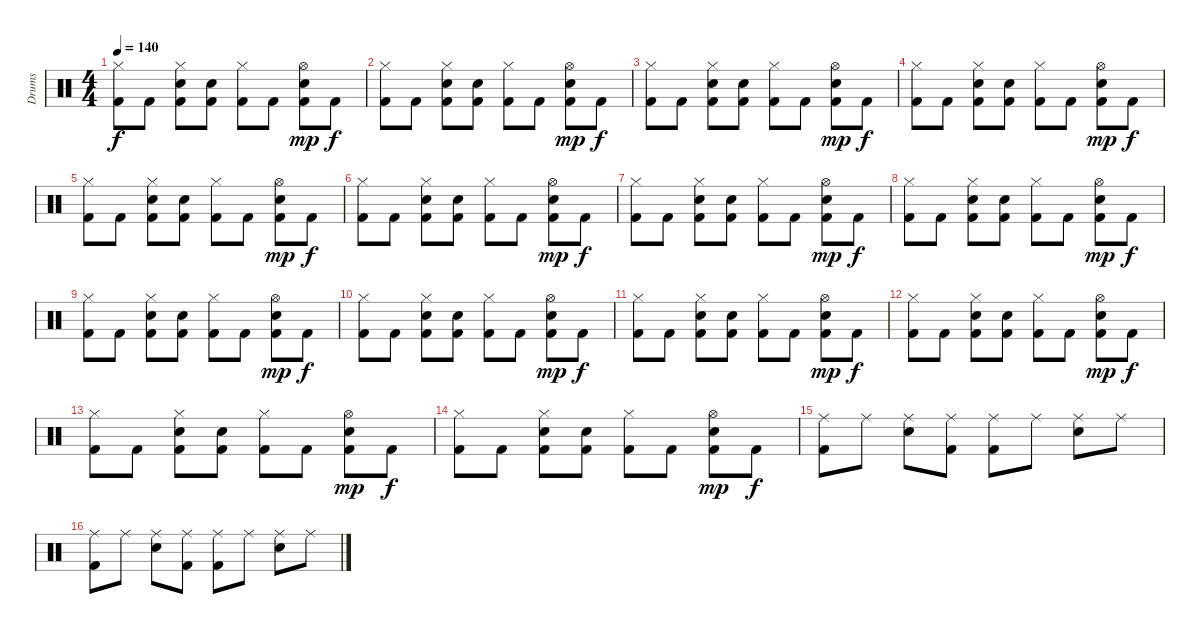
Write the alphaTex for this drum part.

\track ("Drums" "Drums") {instrument percussion}
\staff {score}
\articulation defaults
\ts (4 4)
\tempo 140
\clef neutral
\ks c
("Hi-Hat (closed)" "Kick (hit) 2").8{dy f} "Kick (hit) 2".8 ("Hi-Hat (closed)" "Electric Snare (hit)" "Kick (hit) 2").8 ("Electric Snare (hit)" "Kick (hit) 2").8 ("Hi-Hat (closed)" "Kick (hit) 2").8 "Kick (hit) 2".8 ("Hi-Hat (open)" "Electric Snare (hit)" "Kick (hit) 2").8{dy mp} "Kick (hit) 2".8{dy f} |
("Hi-Hat (closed)" "Kick (hit) 2").8 "Kick (hit) 2".8 ("Hi-Hat (closed)" "Electric Snare (hit)" "Kick (hit) 2").8 ("Electric Snare (hit)" "Kick (hit) 2").8 ("Hi-Hat (closed)" "Kick (hit) 2").8 "Kick (hit) 2".8 ("Hi-Hat (open)" "Electric Snare (hit)" "Kick (hit) 2").8{dy mp} "Kick (hit) 2".8{dy f} |
("Hi-Hat (closed)" "Kick (hit) 2").8 "Kick (hit) 2".8 ("Hi-Hat (closed)" "Electric Snare (hit)" "Kick (hit) 2").8 ("Electric Snare (hit)" "Kick (hit) 2").8 ("Hi-Hat (closed)" "Kick (hit) 2").8 "Kick (hit) 2".8 ("Hi-Hat (open)" "Electric Snare (hit)" "Kick (hit) 2").8{dy mp} "Kick (hit) 2".8{dy f} |
("Hi-Hat (closed)" "Kick (hit) 2").8 "Kick (hit) 2".8 ("Hi-Hat (closed)" "Electric Snare (hit)" "Kick (hit) 2").8 ("Electric Snare (hit)" "Kick (hit) 2").8 ("Hi-Hat (closed)" "Kick (hit) 2").8 "Kick (hit) 2".8 ("Hi-Hat (open)" "Electric Snare (hit)" "Kick (hit) 2").8{dy mp} "Kick (hit) 2".8{dy f} |
("Hi-Hat (closed)" "Kick (hit) 2").8 "Kick (hit) 2".8 ("Hi-Hat (closed)" "Electric Snare (hit)" "Kick (hit) 2").8 ("Electric Snare (hit)" "Kick (hit) 2").8 ("Hi-Hat (closed)" "Kick (hit) 2").8 "Kick (hit) 2".8 ("Hi-Hat (open)" "Electric Snare (hit)" "Kick (hit) 2").8{dy mp} "Kick (hit) 2".8{dy f} |
("Hi-Hat (closed)" "Kick (hit) 2").8 "Kick (hit) 2".8 ("Hi-Hat (closed)" "Electric Snare (hit)" "Kick (hit) 2").8 ("Electric Snare (hit)" "Kick (hit) 2").8 ("Hi-Hat (closed)" "Kick (hit) 2").8 "Kick (hit) 2".8 ("Hi-Hat (open)" "Electric Snare (hit)" "Kick (hit) 2").8{dy mp} "Kick (hit) 2".8{dy f} |
("Hi-Hat (closed)" "Kick (hit) 2").8 "Kick (hit) 2".8 ("Hi-Hat (closed)" "Electric Snare (hit)" "Kick (hit) 2").8 ("Electric Snare (hit)" "Kick (hit) 2").8 ("Hi-Hat (closed)" "Kick (hit) 2").8 "Kick (hit) 2".8 ("Hi-Hat (open)" "Electric Snare (hit)" "Kick (hit) 2").8{dy mp} "Kick (hit) 2".8{dy f} |
("Hi-Hat (closed)" "Kick (hit) 2").8 "Kick (hit) 2".8 ("Hi-Hat (closed)" "Electric Snare (hit)" "Kick (hit) 2").8 ("Electric Snare (hit)" "Kick (hit) 2").8 ("Hi-Hat (closed)" "Kick (hit) 2").8 "Kick (hit) 2".8 ("Hi-Hat (open)" "Electric Snare (hit)" "Kick (hit) 2").8{dy mp} "Kick (hit) 2".8{dy f} |
("Hi-Hat (closed)" "Kick (hit) 2").8 "Kick (hit) 2".8 ("Hi-Hat (closed)" "Electric Snare (hit)" "Kick (hit) 2").8 ("Electric Snare (hit)" "Kick (hit) 2").8 ("Hi-Hat (closed)" "Kick (hit) 2").8 "Kick (hit) 2".8 ("Hi-Hat (open)" "Electric Snare (hit)" "Kick (hit) 2").8{dy mp} "Kick (hit) 2".8{dy f} |
("Hi-Hat (closed)" "Kick (hit) 2").8 "Kick (hit) 2".8 ("Hi-Hat (closed)" "Electric Snare (hit)" "Kick (hit) 2").8 ("Electric Snare (hit)" "Kick (hit) 2").8 ("Hi-Hat (closed)" "Kick (hit) 2").8 "Kick (hit) 2".8 ("Hi-Hat (open)" "Electric Snare (hit)" "Kick (hit) 2").8{dy mp} "Kick (hit) 2".8{dy f} |
("Hi-Hat (closed)" "Kick (hit) 2").8 "Kick (hit) 2".8 ("Hi-Hat (closed)" "Electric Snare (hit)" "Kick (hit) 2").8 ("Electric Snare (hit)" "Kick (hit) 2").8 ("Hi-Hat (closed)" "Kick (hit) 2").8 "Kick (hit) 2".8 ("Hi-Hat (open)" "Electric Snare (hit)" "Kick (hit) 2").8{dy mp} "Kick (hit) 2".8{dy f} |
("Hi-Hat (closed)" "Kick (hit) 2").8 "Kick (hit) 2".8 ("Hi-Hat (closed)" "Electric Snare (hit)" "Kick (hit) 2").8 ("Electric Snare (hit)" "Kick (hit) 2").8 ("Hi-Hat (closed)" "Kick (hit) 2").8 "Kick (hit) 2".8 ("Hi-Hat (open)" "Electric Snare (hit)" "Kick (hit) 2").8{dy mp} "Kick (hit) 2".8{dy f} |
("Hi-Hat (closed)" "Kick (hit) 2").8 "Kick (hit) 2".8 ("Hi-Hat (closed)" "Electric Snare (hit)" "Kick (hit) 2").8 ("Electric Snare (hit)" "Kick (hit) 2").8 ("Hi-Hat (closed)" "Kick (hit) 2").8 "Kick (hit) 2".8 ("Hi-Hat (open)" "Electric Snare (hit)" "Kick (hit) 2").8{dy mp} "Kick (hit) 2".8{dy f} |
("Hi-Hat (closed)" "Kick (hit) 2").8 "Kick (hit) 2".8 ("Hi-Hat (closed)" "Electric Snare (hit)" "Kick (hit) 2").8 ("Electric Snare (hit)" "Kick (hit) 2").8 ("Hi-Hat (closed)" "Kick (hit) 2").8 "Kick (hit) 2".8 ("Hi-Hat (open)" "Electric Snare (hit)" "Kick (hit) 2").8{dy mp} "Kick (hit) 2".8{dy f} |
("Ride (middle)" "Kick (hit) 2").8 "Ride (middle)".8 ("Ride (middle)" "Electric Snare (hit)").8 ("Ride (middle)" "Kick (hit) 2").8 ("Ride (middle)" "Kick (hit) 2").8 "Ride (middle)".8 ("Ride (middle)" "Electric Snare (hit)").8 "Ride (middle)".8 |
("Ride (middle)" "Kick (hit) 2").8 "Ride (middle)".8 ("Ride (middle)" "Electric Snare (hit)").8 ("Ride (middle)" "Kick (hit) 2").8 ("Ride (middle)" "Kick (hit) 2").8 "Ride (middle)".8 ("Ride (middle)" "Electric Snare (hit)").8 "Ride (middle)".8
